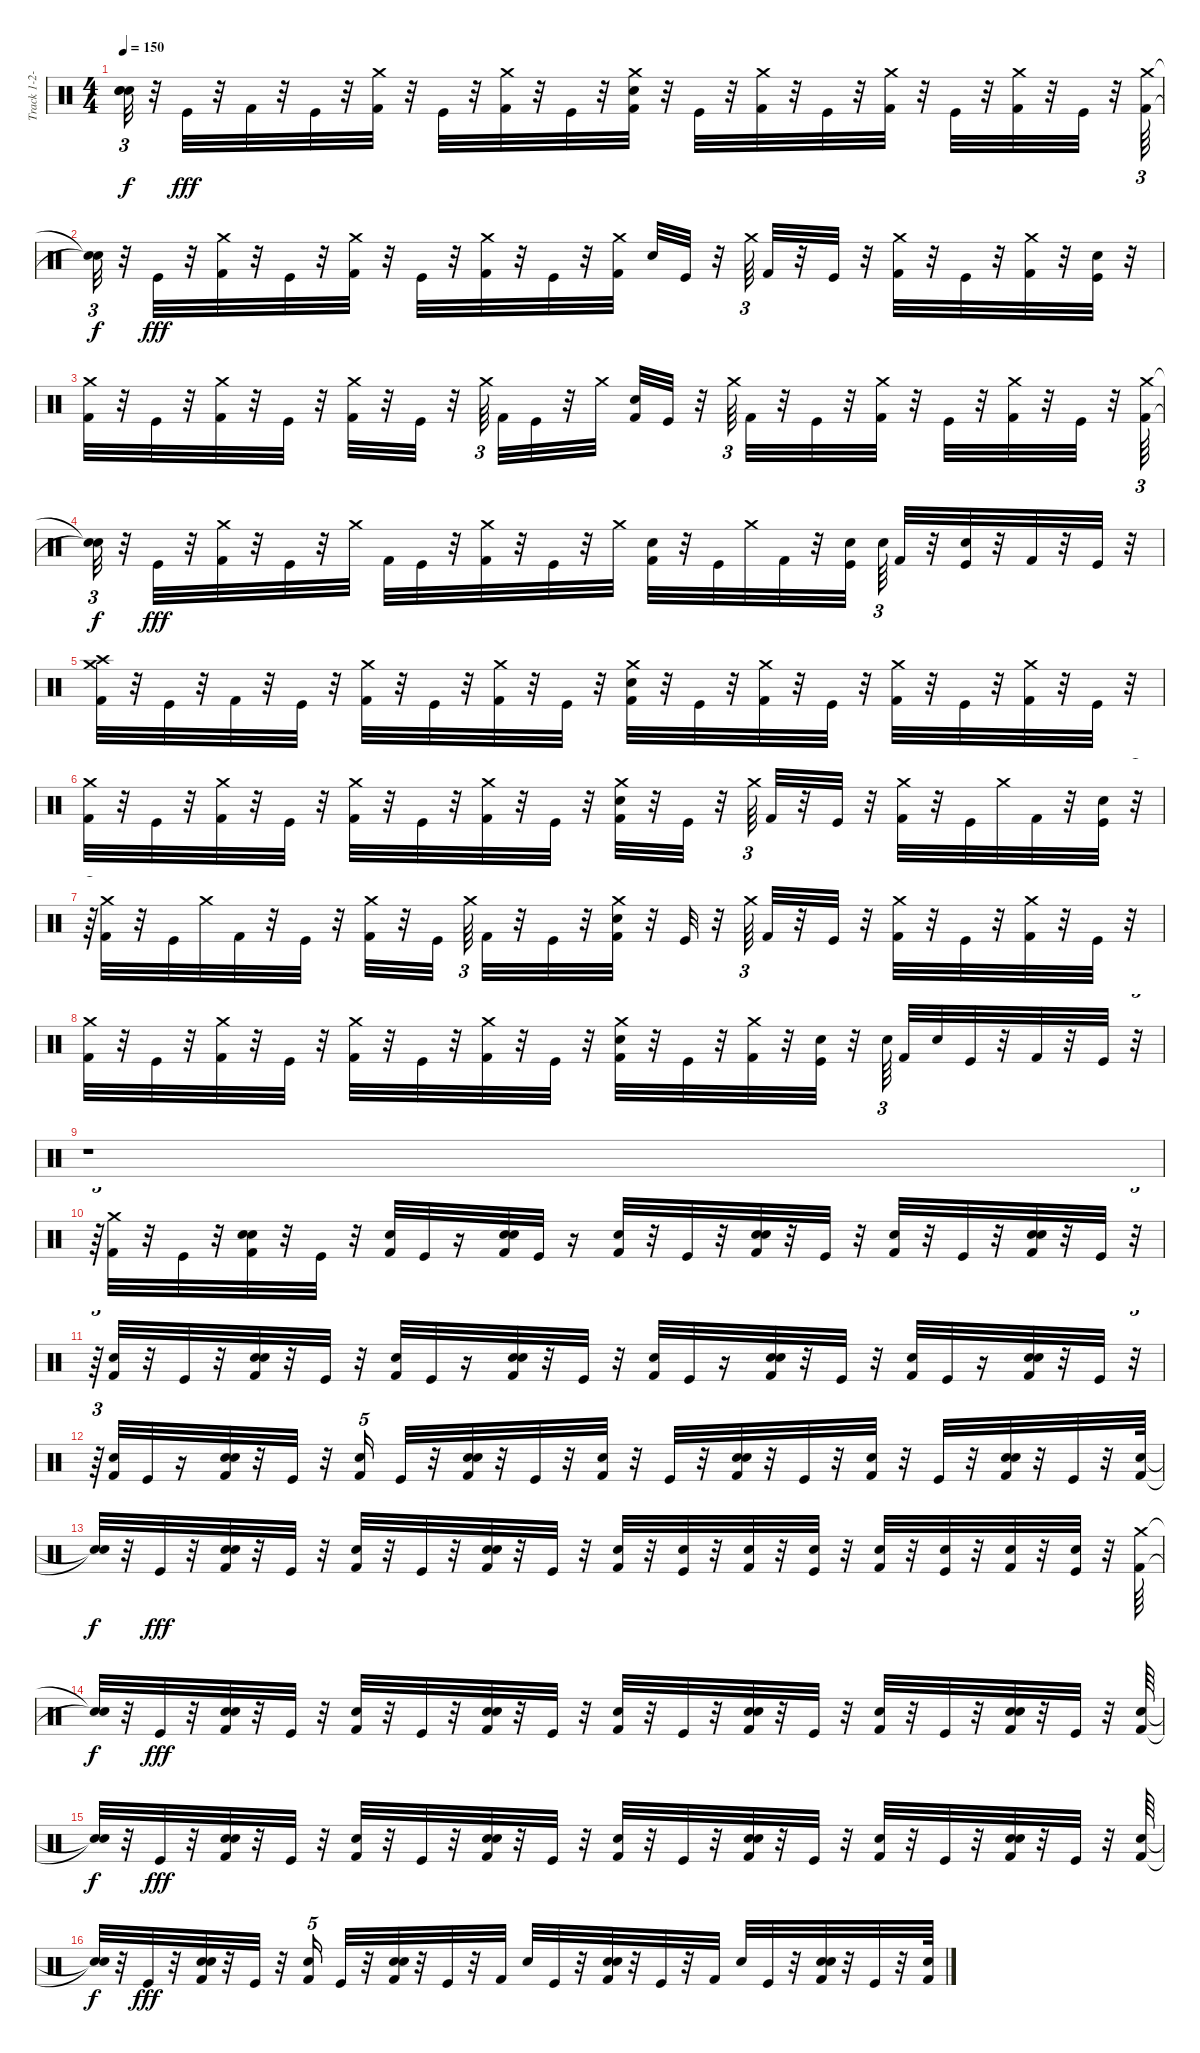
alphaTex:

\track ("Track 1-2-3-4-5-6-7-8-9-10-11-12-13-14-1" "Track 1-2-") {instrument percussion}
\staff {score}
\articulation defaults
\ts (4 4)
\tempo 150
\clef neutral
\ks c
("Snare (hit)"{t} "Snare (hit)"{t} "Snare (hit)"{t}).32{tu (3 2) dy f} r.32 "Kick (hit)".32{dy fff} r.32 "Kick (hit) 2".32 r.32 "Kick (hit)".32 r.32 ("Kick (hit) 2" "Crash medium (hit)").32 r.32 "Kick (hit)".32 r.32 ("Kick (hit) 2" "Crash medium (hit)").32 r.32 "Kick (hit)".32 r.32 ("Kick (hit) 2" "Snare (hit) 2" "Crash medium (hit)").32 r.32 "Kick (hit)".32 r.32 ("Kick (hit) 2" "Crash medium (hit)").32 r.32 "Kick (hit)".32 r.32 ("Kick (hit) 2" "Crash medium (hit)").32 r.32 "Kick (hit)".32 r.32 ("Kick (hit) 2" "Crash medium (hit)").32 r.32 "Kick (hit)".32 r.32 ("Crash medium (hit)" "Kick (hit) 2").64{tu (3 2)} |
("Snare (hit)"{t} "Snare (hit)"{t}).32{tu (3 2) dy f} r.32 "Kick (hit)".32{dy fff} r.32 ("Crash medium (hit)" "Kick (hit) 2").32 r.32 "Kick (hit)".32 r.32 ("Crash medium (hit)" "Kick (hit) 2").32 r.32 "Kick (hit)".32 r.32 ("Crash medium (hit)" "Kick (hit) 2").32 r.32 "Kick (hit)".32 r.32 ("Crash medium (hit)" "Kick (hit) 2").32 "Snare (hit) 2".32 "Kick (hit)".32 r.32 "Crash medium (hit)".64{tu (3 2)} "Kick (hit) 2".32 r.32 "Kick (hit)".32 r.32 ("Crash medium (hit)" "Kick (hit) 2").32 r.32 "Kick (hit)".32 r.32 ("Crash medium (hit)" "Kick (hit) 2").32 r.32 ("Kick (hit)" "Snare (hit)").32 r.32 |
("Crash medium (hit)" "Kick (hit) 2").32 r.32 "Kick (hit)".32 r.32 ("Crash medium (hit)" "Kick (hit) 2").32 r.32 "Kick (hit)".32 r.32 ("Crash medium (hit)" "Kick (hit) 2").32 r.32 "Kick (hit)".32 r.32 "Crash medium (hit)".64{tu (3 2) beam splitsecondary} "Kick (hit) 2".32 "Kick (hit)".32 r.32 "Crash medium (hit)".32 ("Snare (hit) 2" "Kick (hit) 2").32 "Kick (hit)".32 r.32 "Crash medium (hit)".64{tu (3 2)} "Kick (hit) 2".32 r.32 "Kick (hit)".32 r.32 ("Crash medium (hit)" "Kick (hit) 2").32 r.32 "Kick (hit)".32 r.32 ("Crash medium (hit)" "Kick (hit) 2").32 r.32 "Kick (hit)".32 r.32 ("Crash medium (hit)" "Kick (hit) 2").64{tu (3 2)} |
("Snare (hit)"{t} "Snare (hit)"{t}).32{tu (3 2) dy f} r.32 "Kick (hit)".32{dy fff} r.32 ("Crash medium (hit)" "Kick (hit) 2").32 r.32 "Kick (hit)".32 r.32 "Crash medium (hit)".32 "Kick (hit) 2".32 "Kick (hit)".32 r.32 ("Crash medium (hit)" "Kick (hit) 2").32 r.32 "Kick (hit)".32 r.32 "Crash medium (hit)".32 ("Snare (hit) 2" "Kick (hit) 2").32 r.32 "Kick (hit)".32 "Crash medium (hit)".32 "Kick (hit) 2".32 r.32 ("Kick (hit)" "Snare (hit) 2").32 "Snare (hit) 2".64{tu (3 2)} "Kick (hit) 2".32 r.32 ("Snare (hit) 2" "Kick (hit)").32 r.32 "Kick (hit) 2".32 r.32 "Kick (hit)".32 r.32 |
("Crash high (hit)" "Kick (hit) 2" "Crash medium (hit)").32 r.32 "Kick (hit)".32 r.32 "Kick (hit) 2".32 r.32 "Kick (hit)".32 r.32 ("Kick (hit) 2" "Crash medium (hit)").32 r.32 "Kick (hit)".32 r.32 ("Kick (hit) 2" "Crash medium (hit)").32 r.32 "Kick (hit)".32 r.32 ("Kick (hit) 2" "Snare (hit) 2" "Crash medium (hit)").32 r.32 "Kick (hit)".32 r.32 ("Kick (hit) 2" "Crash medium (hit)").32 r.32 "Kick (hit)".32 r.32 ("Kick (hit) 2" "Crash medium (hit)").32 r.32 "Kick (hit)".32 r.32 ("Kick (hit) 2" "Crash medium (hit)").32 r.32 "Kick (hit)".32 r.32 |
("Crash medium (hit)" "Kick (hit) 2").32 r.32 "Kick (hit)".32 r.32 ("Crash medium (hit)" "Kick (hit) 2").32 r.32 "Kick (hit)".32 r.32 ("Crash medium (hit)" "Kick (hit) 2").32 r.32 "Kick (hit)".32 r.32 ("Crash medium (hit)" "Kick (hit) 2").32 r.32 "Kick (hit)".32 r.32 ("Crash medium (hit)" "Kick (hit) 2" "Snare (hit) 2").32 r.32 "Kick (hit)".32 r.32 "Crash medium (hit)".64{tu (3 2)} "Kick (hit) 2".32 r.32 "Kick (hit)".32 r.32 ("Crash medium (hit)" "Kick (hit) 2").32 r.32 "Kick (hit)".32 "Crash medium (hit)".32 "Kick (hit) 2".32 r.32 ("Kick (hit)" "Snare (hit)").32 r.32{tu (3 2)} |
r.64{tu (3 2)} ("Crash medium (hit)" "Kick (hit) 2").32 r.32 "Kick (hit)".32 "Crash medium (hit)".32 "Kick (hit) 2".32 r.32 "Kick (hit)".32 r.32 ("Crash medium (hit)" "Kick (hit) 2").32 r.32 "Kick (hit)".32{beam splitsecondary} "Crash medium (hit)".64{tu (3 2)} "Kick (hit) 2".32 r.32 "Kick (hit)".32 r.32 ("Crash medium (hit)" "Snare (hit) 2" "Kick (hit) 2").32 r.32 "Kick (hit)".32 r.32 "Crash medium (hit)".64{tu (3 2)} "Kick (hit) 2".32 r.32 "Kick (hit)".32 r.32 ("Crash medium (hit)" "Kick (hit) 2").32 r.32 "Kick (hit)".32 r.32 ("Crash medium (hit)" "Kick (hit) 2").32 r.32 "Kick (hit)".32 r.32 |
("Crash medium (hit)" "Kick (hit) 2").32 r.32 "Kick (hit)".32 r.32 ("Crash medium (hit)" "Kick (hit) 2").32 r.32 "Kick (hit)".32 r.32 ("Crash medium (hit)" "Kick (hit) 2").32 r.32 "Kick (hit)".32 r.32 ("Crash medium (hit)" "Kick (hit) 2").32 r.32 "Kick (hit)".32 r.32 ("Crash medium (hit)" "Snare (hit) 2" "Kick (hit) 2").32 r.32 "Kick (hit)".32 r.32 ("Crash medium (hit)" "Kick (hit) 2").32 r.32 ("Kick (hit)" "Snare (hit) 2").32 r.32 "Snare (hit) 2".64{tu (3 2) beam splitsecondary} "Kick (hit) 2".32 "Snare (hit) 2".32 "Kick (hit)".32 r.32 "Kick (hit) 2".32 r.32 "Kick (hit)".32 r.32{tu (3 2)} |
r.1 |
r.64{tu (3 2)} ("Kick (hit) 2" "Crash medium (hit)").32 r.32 "Kick (hit)".32 r.32 ("Snare (hit) 2" "Kick (hit) 2" "Snare (hit)").32 r.32 "Kick (hit)".32 r.32 ("Kick (hit) 2" "Snare (hit)").32 "Kick (hit)".32 r.16 ("Kick (hit) 2" "Snare (hit)" "Snare (hit) 2").32 "Kick (hit)".32 r.16 ("Kick (hit) 2" "Snare (hit)").32 r.32 "Kick (hit)".32 r.32 ("Kick (hit) 2" "Snare (hit)" "Snare (hit) 2").32 r.32 "Kick (hit)".32 r.32 ("Kick (hit) 2" "Snare (hit)").32 r.32 "Kick (hit)".32 r.32 ("Kick (hit) 2" "Snare (hit) 2" "Snare (hit)").32 r.32 "Kick (hit)".32 r.32{tu (3 2)} |
r.64{tu (3 2)} ("Kick (hit) 2" "Snare (hit)").32 r.32 "Kick (hit)".32 r.32 ("Snare (hit) 2" "Kick (hit) 2" "Snare (hit)").32 r.32 "Kick (hit)".32 r.32 ("Kick (hit) 2" "Snare (hit)").32 "Kick (hit)".32 r.16 ("Snare (hit) 2" "Kick (hit) 2" "Snare (hit)").32 r.32 "Kick (hit)".32 r.32 ("Kick (hit) 2" "Snare (hit)").32 "Kick (hit)".32 r.16 ("Snare (hit) 2" "Snare (hit)" "Kick (hit) 2").32 r.32 "Kick (hit)".32 r.32 ("Kick (hit) 2" "Snare (hit)").32 "Kick (hit)".32 r.16 ("Snare (hit) 2" "Snare (hit)" "Kick (hit) 2").32 r.32 "Kick (hit)".32 r.32{tu (3 2)} |
r.64{tu (3 2)} ("Kick (hit) 2" "Snare (hit)").32 "Kick (hit)".32 r.16 ("Kick (hit) 2" "Snare (hit) 2" "Snare (hit)").32 r.32 "Kick (hit)".32 r.32 ("Kick (hit) 2" "Snare (hit)").16{tu (5 4)} "Kick (hit)".32 r.32 ("Snare (hit) 2" "Kick (hit) 2" "Snare (hit)").32 r.32 "Kick (hit)".32 r.32 ("Kick (hit) 2" "Snare (hit)").32 r.32 "Kick (hit)".32 r.32 ("Snare (hit)" "Snare (hit) 2" "Kick (hit) 2").32 r.32 "Kick (hit)".32 r.32 ("Kick (hit) 2" "Snare (hit)").32 r.32 "Kick (hit)".32 r.32 ("Snare (hit) 2" "Snare (hit)" "Kick (hit) 2").32 r.32 "Kick (hit)".32 r.32 ("Kick (hit) 2" "Snare (hit)").64 |
("Snare (hit)"{t} "Snare (hit)"{t}).32{dy f} r.32 "Kick (hit)".32{dy fff} r.32 ("Snare (hit)" "Snare (hit) 2" "Kick (hit) 2").32 r.32 "Kick (hit)".32 r.32 ("Kick (hit) 2" "Snare (hit)").32 r.32 "Kick (hit)".32 r.32 ("Snare (hit) 2" "Snare (hit)" "Kick (hit) 2").32 r.32 "Kick (hit)".32 r.32 ("Snare (hit)" "Kick (hit) 2").32 r.32 ("Kick (hit)" "Snare (hit) 2").32 r.32 ("Snare (hit) 2" "Kick (hit) 2").32 r.32 ("Kick (hit)" "Snare (hit) 2").32 r.32 ("Snare (hit) 2" "Kick (hit) 2").32 r.32 ("Kick (hit)" "Snare (hit) 2").32 r.32 ("Kick (hit) 2" "Snare (hit) 2").32 r.32 ("Snare (hit) 2" "Kick (hit)").32 r.32 ("Kick (hit) 2" "Crash medium (hit)").64 |
("Snare (hit)"{t} "Snare (hit)"{t}).32{dy f} r.32 "Kick (hit)".32{dy fff} r.32 ("Snare (hit) 2" "Kick (hit) 2" "Snare (hit)").32 r.32 "Kick (hit)".32 r.32 ("Kick (hit) 2" "Snare (hit)").32 r.32 "Kick (hit)".32 r.32 ("Kick (hit) 2" "Snare (hit)" "Snare (hit) 2").32 r.32 "Kick (hit)".32 r.32 ("Kick (hit) 2" "Snare (hit)").32 r.32 "Kick (hit)".32 r.32 ("Kick (hit) 2" "Snare (hit)" "Snare (hit) 2").32 r.32 "Kick (hit)".32 r.32 ("Kick (hit) 2" "Snare (hit)").32 r.32 "Kick (hit)".32 r.32 ("Kick (hit) 2" "Snare (hit) 2" "Snare (hit)").32 r.32 "Kick (hit)".32 r.32 ("Kick (hit) 2" "Snare (hit)").64 |
("Snare (hit)"{t} "Snare (hit)"{t}).32{dy f} r.32 "Kick (hit)".32{dy fff} r.32 ("Snare (hit) 2" "Kick (hit) 2" "Snare (hit)").32 r.32 "Kick (hit)".32 r.32 ("Kick (hit) 2" "Snare (hit)").32 r.32 "Kick (hit)".32 r.32 ("Snare (hit) 2" "Kick (hit) 2" "Snare (hit)").32 r.32 "Kick (hit)".32 r.32 ("Kick (hit) 2" "Snare (hit)").32 r.32 "Kick (hit)".32 r.32 ("Snare (hit) 2" "Snare (hit)" "Kick (hit) 2").32 r.32 "Kick (hit)".32 r.32 ("Kick (hit) 2" "Snare (hit)").32 r.32 "Kick (hit)".32 r.32 ("Snare (hit) 2" "Snare (hit)" "Kick (hit) 2").32 r.32 "Kick (hit)".32 r.32 ("Kick (hit) 2" "Snare (hit)").64 |
("Snare (hit)"{t} "Snare (hit)"{t}).32{dy f} r.32 "Kick (hit)".32{dy fff} r.32 ("Kick (hit) 2" "Snare (hit) 2" "Snare (hit)").32 r.32 "Kick (hit)".32 r.32 ("Kick (hit) 2" "Snare (hit)").16{tu (5 4)} "Kick (hit)".32 r.32 ("Snare (hit) 2" "Kick (hit) 2" "Snare (hit)").32 r.32 "Kick (hit)".32 r.32 "Kick (hit) 2".32 "Snare (hit)".32 "Kick (hit)".32 r.32 ("Snare (hit)" "Snare (hit) 2" "Kick (hit) 2").32 r.32 "Kick (hit)".32 r.32 "Kick (hit) 2".32 "Snare (hit)".32 "Kick (hit)".32 r.32 ("Snare (hit) 2" "Snare (hit)" "Kick (hit) 2").32 r.32 "Kick (hit)".32 r.32 ("Kick (hit) 2" "Snare (hit)").64
